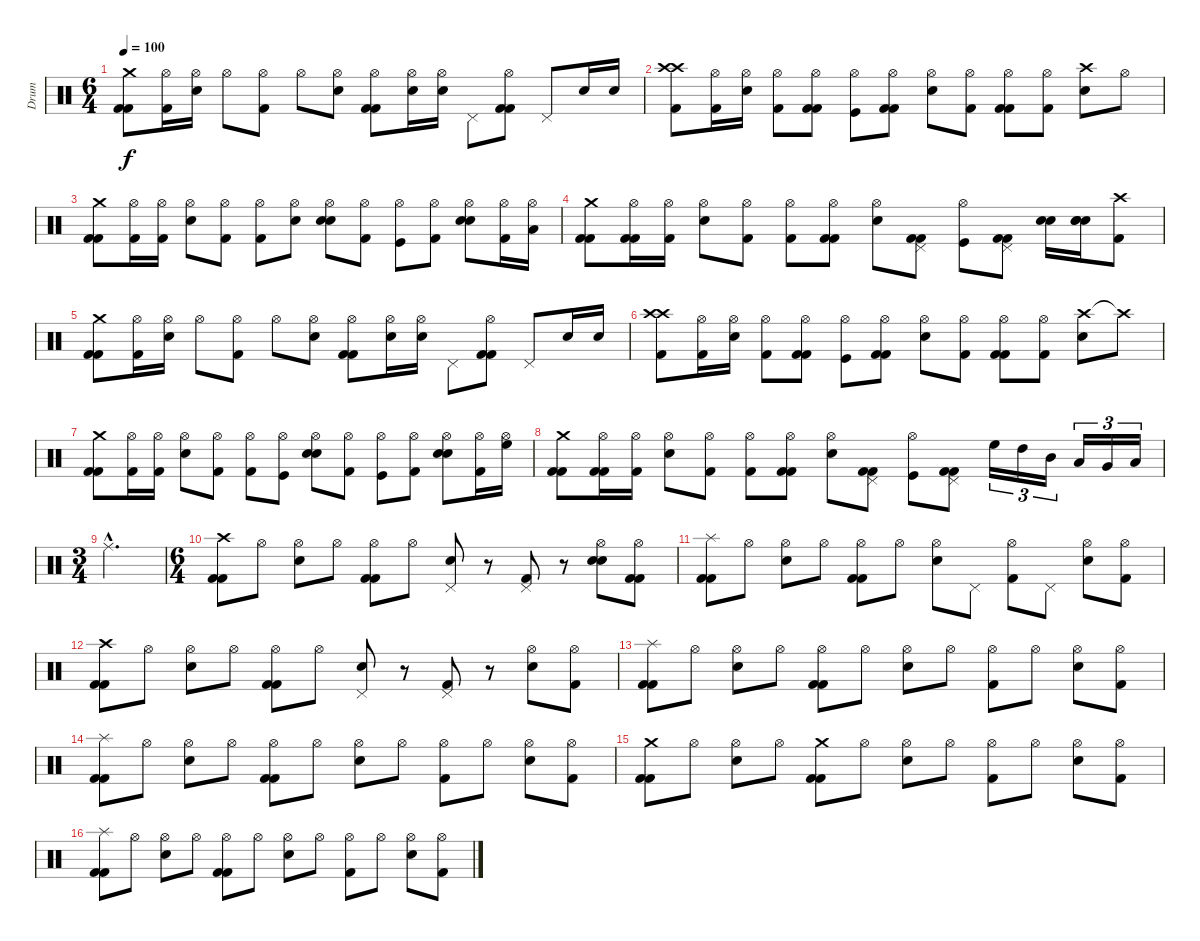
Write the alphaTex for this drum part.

\track ("Drum" "Drum") {instrument percussion}
\staff {score}
\articulation defaults
\ts (6 4)
\tempo 100
\clef neutral
\ks c
("Crash medium (hit)" "Kick (hit) 2" "Kick (hit) 2").8{dy f} ("Hi-Hat (open)" "Kick (hit) 2").16 ("Hi-Hat (open)" "Snare (hit) 2").16 "Hi-Hat (open)".8 ("Hi-Hat (open)" "Kick (hit) 2").8 "Hi-Hat (open)".8 ("Hi-Hat (open)" "Electric Snare (hit)").8 ("Hi-Hat (open)" "Kick (hit) 2" "Kick (hit) 2").8 ("Hi-Hat (open)" "Snare (hit) 2").16 ("Hi-Hat (open)" "Snare (hit) 2").16 "Pedal Hi-Hat (hit)".8 ("Hi-Hat (open)" "Kick (hit) 2" "Kick (hit) 2").8 "Pedal Hi-Hat (hit)".8 "Electric Snare (hit)".16 "Electric Snare (hit)".16 |
("Crash high (hit)" "Crash high (hit)" "Kick (hit) 2").8 ("Hi-Hat (open)" "Kick (hit) 2").16 ("Hi-Hat (open)" "Snare (hit) 2").16 ("Hi-Hat (open)" "Kick (hit) 2").8 ("Hi-Hat (open)" "Kick (hit) 2" "Kick (hit) 2").8 ("Hi-Hat (open)" "Kick (hit)").8 ("Hi-Hat (open)" "Kick (hit) 2" "Kick (hit) 2").8 ("Hi-Hat (open)" "Snare (hit) 2").8 ("Hi-Hat (open)" "Kick (hit) 2").8 ("Hi-Hat (open)" "Kick (hit) 2" "Kick (hit) 2").8 ("Hi-Hat (open)" "Kick (hit) 2").8 ("Crash high (hit)" "Electric Snare (hit)").8 "Hi-Hat (open)".8 |
("Crash medium (hit)" "Kick (hit) 2" "Kick (hit) 2").8 ("Hi-Hat (open)" "Kick (hit) 2").16 ("Hi-Hat (open)" "Kick (hit) 2").16 ("Hi-Hat (open)" "Snare (hit) 2").8 ("Hi-Hat (open)" "Kick (hit) 2").8 ("Hi-Hat (open)" "Kick (hit) 2").8 ("Hi-Hat (open)" "Snare (hit) 2").8 ("Hi-Hat (open)" "Snare (hit) 2" "Snare (hit) 2").8 ("Hi-Hat (open)" "Kick (hit) 2").8 ("Hi-Hat (open)" "Kick (hit)").8 ("Hi-Hat (open)" "Kick (hit) 2").8 ("Hi-Hat (open)" "Snare (hit) 2" "Snare (hit) 2").8 ("Hi-Hat (open)" "Kick (hit) 2").16 ("Hi-Hat (open)" "Low Tom (hit)").16 |
("Crash medium (hit)" "Kick (hit) 2" "Kick (hit) 2").8 ("Hi-Hat (open)" "Kick (hit) 2" "Kick (hit) 2").16 ("Hi-Hat (open)" "Kick (hit) 2").16 ("Hi-Hat (open)" "Snare (hit) 2").8 ("Hi-Hat (open)" "Kick (hit) 2").8 ("Hi-Hat (open)" "Kick (hit) 2").8 ("Hi-Hat (open)" "Kick (hit) 2" "Kick (hit) 2").8 ("Hi-Hat (open)" "Snare (hit) 2").8 ("Pedal Hi-Hat (hit)" "Kick (hit) 2" "Kick (hit) 2").8 ("Hi-Hat (open)" "Kick (hit)").8 ("Pedal Hi-Hat (hit)" "Kick (hit) 2" "Kick (hit) 2").8 ("Snare (hit) 2" "Snare (hit) 2").16 ("Snare (hit) 2" "Snare (hit) 2" "Snare (hit) 2").16 ("Crash high (hit)" "Kick (hit) 2").8 |
("Crash medium (hit)" "Kick (hit) 2" "Kick (hit) 2").8 ("Hi-Hat (open)" "Kick (hit) 2").16 ("Hi-Hat (open)" "Snare (hit) 2").16 "Hi-Hat (open)".8 ("Hi-Hat (open)" "Kick (hit) 2").8 "Hi-Hat (open)".8 ("Hi-Hat (open)" "Electric Snare (hit)").8 ("Hi-Hat (open)" "Kick (hit) 2" "Kick (hit) 2").8 ("Hi-Hat (open)" "Snare (hit) 2").16 ("Hi-Hat (open)" "Snare (hit) 2").16 "Pedal Hi-Hat (hit)".8 ("Hi-Hat (open)" "Kick (hit) 2" "Kick (hit) 2").8 "Pedal Hi-Hat (hit)".8 "Electric Snare (hit)".16 "Electric Snare (hit)".16 |
("Crash high (hit)" "Crash high (hit)" "Kick (hit) 2").8 ("Hi-Hat (open)" "Kick (hit) 2").16 ("Hi-Hat (open)" "Snare (hit) 2").16 ("Hi-Hat (open)" "Kick (hit) 2").8 ("Hi-Hat (open)" "Kick (hit) 2" "Kick (hit) 2").8 ("Hi-Hat (open)" "Kick (hit)").8 ("Hi-Hat (open)" "Kick (hit) 2" "Kick (hit) 2").8 ("Hi-Hat (open)" "Snare (hit) 2").8 ("Hi-Hat (open)" "Kick (hit) 2").8 ("Hi-Hat (open)" "Kick (hit) 2" "Kick (hit) 2").8 ("Hi-Hat (open)" "Kick (hit) 2").8 ("Crash high (hit)" "Electric Snare (hit)").8 "Crash high (hit)"{t}.8 |
("Crash medium (hit)" "Kick (hit) 2" "Kick (hit) 2").8 ("Hi-Hat (open)" "Kick (hit) 2").16 ("Hi-Hat (open)" "Kick (hit) 2").16 ("Hi-Hat (open)" "Snare (hit) 2").8 ("Hi-Hat (open)" "Kick (hit) 2").8 ("Hi-Hat (open)" "Kick (hit) 2").8 ("Hi-Hat (open)" "Kick (hit)").8 ("Hi-Hat (open)" "Snare (hit) 2" "Snare (hit) 2").8 ("Hi-Hat (open)" "Kick (hit) 2").8 ("Hi-Hat (open)" "Kick (hit)").8 ("Hi-Hat (open)" "Kick (hit) 2").8 ("Hi-Hat (open)" "Snare (hit) 2" "Snare (hit) 2").8 ("Hi-Hat (open)" "Kick (hit) 2").16 ("Hi-Hat (open)" "High Floor Tom (hit)").16 |
("Crash medium (hit)" "Kick (hit) 2" "Kick (hit) 2").8 ("Hi-Hat (open)" "Kick (hit) 2" "Kick (hit) 2").16 ("Hi-Hat (open)" "Kick (hit) 2").16 ("Hi-Hat (open)" "Snare (hit) 2").8 ("Hi-Hat (open)" "Kick (hit) 2").8 ("Hi-Hat (open)" "Kick (hit) 2").8 ("Hi-Hat (open)" "Kick (hit) 2" "Kick (hit) 2").8 ("Hi-Hat (open)" "Snare (hit) 2").8 ("Pedal Hi-Hat (hit)" "Kick (hit) 2" "Kick (hit) 2").8 ("Hi-Hat (open)" "Kick (hit)").8 ("Pedal Hi-Hat (hit)" "Kick (hit) 2" "Kick (hit) 2").8 "High Floor Tom (hit)".16{tu (3 2)} "High Tom (hit)".16{tu (3 2)} "Mid Tom (hit)".16{tu (3 2)} "Low Tom (hit)".16{tu (3 2)} "Very Low Tom (hit)".16{tu (3 2)} "Low Floor Tom (hit)".16{tu (3 2)} |
\ts (3 4)
"Ride (middle)"{hac}.2{d} |
\ts (6 4)
("Crash high (hit)" "Kick (hit) 2" "Kick (hit) 2").8 "Hi-Hat (open)".8 ("Hi-Hat (open)" "Snare (hit) 2").8 "Hi-Hat (open)".8 ("Hi-Hat (open)" "Kick (hit) 2" "Kick (hit) 2").8 "Hi-Hat (open)".8 ("Pedal Hi-Hat (hit)" "Snare (hit) 2").8 r.8 ("Pedal Hi-Hat (hit)" "Kick (hit) 2").8 r.8 ("Hi-Hat (open)" "Snare (hit) 2" "Snare (hit) 2").8 ("Hi-Hat (open)" "Kick (hit) 2" "Kick (hit) 2").8 |
("Splash (hit)" "Kick (hit) 2" "Kick (hit) 2").8 "Hi-Hat (open)".8 ("Hi-Hat (open)" "Snare (hit) 2").8 "Hi-Hat (open)".8 ("Hi-Hat (open)" "Kick (hit) 2" "Kick (hit) 2").8 "Hi-Hat (open)".8 ("Hi-Hat (open)" "Snare (hit) 2").8 "Pedal Hi-Hat (hit)".8 ("Hi-Hat (open)" "Kick (hit) 2").8 "Pedal Hi-Hat (hit)".8 ("Hi-Hat (open)" "Snare (hit) 2").8 ("Hi-Hat (open)" "Kick (hit) 2").8 |
("Crash high (hit)" "Kick (hit) 2" "Kick (hit) 2").8 "Hi-Hat (open)".8 ("Hi-Hat (open)" "Snare (hit) 2").8 "Hi-Hat (open)".8 ("Hi-Hat (open)" "Kick (hit) 2" "Kick (hit) 2").8 "Hi-Hat (open)".8 ("Pedal Hi-Hat (hit)" "Snare (hit) 2").8 r.8 ("Pedal Hi-Hat (hit)" "Kick (hit) 2").8 r.8 ("Hi-Hat (open)" "Snare (hit) 2").8 ("Hi-Hat (open)" "Kick (hit) 2").8 |
("Splash (hit)" "Kick (hit) 2" "Kick (hit) 2").8 "Hi-Hat (open)".8 ("Hi-Hat (open)" "Snare (hit) 2").8 "Hi-Hat (open)".8 ("Hi-Hat (open)" "Kick (hit) 2" "Kick (hit) 2").8 "Hi-Hat (open)".8 ("Hi-Hat (open)" "Snare (hit) 2").8 "Hi-Hat (open)".8 ("Hi-Hat (open)" "Kick (hit) 2").8 "Hi-Hat (open)".8 ("Hi-Hat (open)" "Snare (hit) 2").8 ("Hi-Hat (open)" "Kick (hit) 2").8 |
("Splash (hit)" "Kick (hit) 2" "Kick (hit) 2").8 "Hi-Hat (open)".8 ("Hi-Hat (open)" "Snare (hit) 2").8 "Hi-Hat (open)".8 ("Hi-Hat (open)" "Kick (hit) 2" "Kick (hit) 2").8 "Hi-Hat (open)".8 ("Hi-Hat (open)" "Snare (hit) 2").8 "Hi-Hat (open)".8 ("Hi-Hat (open)" "Kick (hit) 2").8 "Hi-Hat (open)".8 ("Hi-Hat (open)" "Snare (hit) 2").8 ("Hi-Hat (open)" "Kick (hit) 2").8 |
("Crash medium (hit)" "Kick (hit) 2" "Kick (hit) 2").8 "Hi-Hat (open)".8 ("Hi-Hat (open)" "Snare (hit) 2").8 "Hi-Hat (open)".8 ("Crash medium (hit)" "Kick (hit) 2" "Kick (hit) 2").8 "Hi-Hat (open)".8 ("Hi-Hat (open)" "Snare (hit) 2").8 "Hi-Hat (open)".8 ("Hi-Hat (open)" "Kick (hit) 2").8 "Hi-Hat (open)".8 ("Hi-Hat (open)" "Snare (hit) 2").8 ("Hi-Hat (open)" "Kick (hit) 2").8 |
("Splash (hit)" "Kick (hit) 2" "Kick (hit) 2").8 "Hi-Hat (open)".8 ("Hi-Hat (open)" "Snare (hit) 2").8 "Hi-Hat (open)".8 ("Hi-Hat (open)" "Kick (hit) 2" "Kick (hit) 2").8 "Hi-Hat (open)".8 ("Hi-Hat (open)" "Snare (hit) 2").8 "Hi-Hat (open)".8 ("Hi-Hat (open)" "Kick (hit) 2").8 "Hi-Hat (open)".8 ("Hi-Hat (open)" "Snare (hit) 2").8 ("Hi-Hat (open)" "Kick (hit) 2").8
